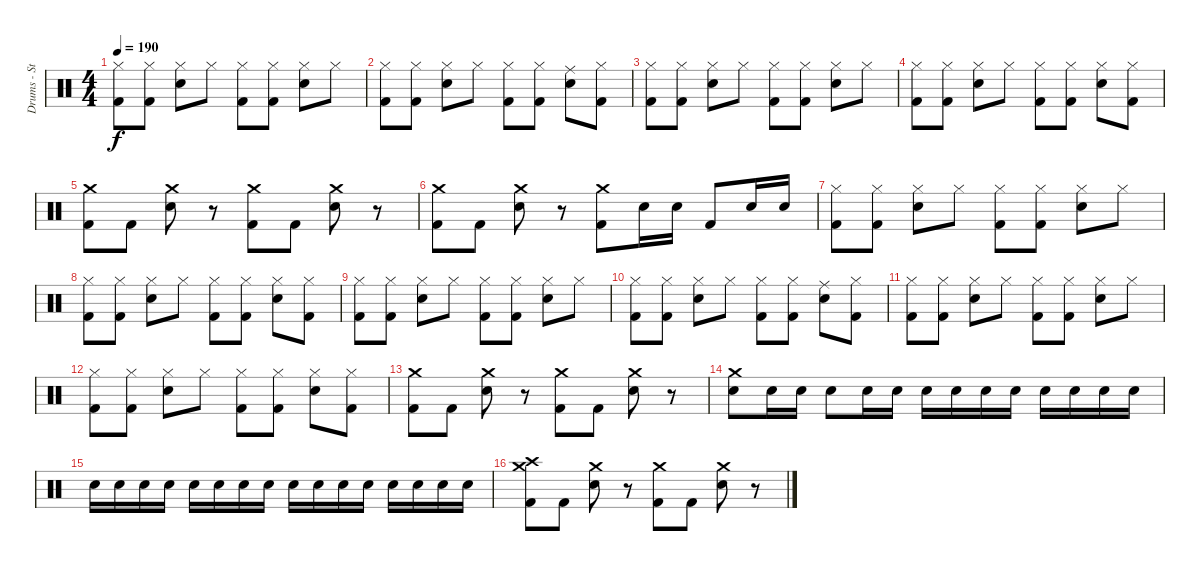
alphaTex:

\track ("Drums - Stevo 32" "Drums - St") {instrument percussion}
\staff {score}
\articulation defaults
\ts (4 4)
\tempo 190
\clef neutral
\ks c
("Hi-Hat (closed)" "Kick (hit) 2").8{dy f} ("Hi-Hat (closed)" "Kick (hit) 2").8 ("Hi-Hat (closed)" "Electric Snare (hit)").8 "Hi-Hat (closed)".8 ("Hi-Hat (closed)" "Kick (hit) 2").8 ("Hi-Hat (closed)" "Kick (hit) 2").8 ("Hi-Hat (closed)" "Electric Snare (hit)").8 "Hi-Hat (closed)".8 |
("Hi-Hat (closed)" "Kick (hit) 2").8 ("Hi-Hat (closed)" "Kick (hit) 2").8 ("Hi-Hat (closed)" "Electric Snare (hit)").8 "Hi-Hat (closed)".8 ("Hi-Hat (closed)" "Kick (hit) 2").8 ("Hi-Hat (closed)" "Kick (hit) 2").8 ("Ride (middle)" "Electric Snare (hit)").8 ("Hi-Hat (closed)" "Kick (hit) 2").8 |
("Hi-Hat (closed)" "Kick (hit) 2").8 ("Hi-Hat (closed)" "Kick (hit) 2").8 ("Hi-Hat (closed)" "Electric Snare (hit)").8 "Hi-Hat (closed)".8 ("Hi-Hat (closed)" "Kick (hit) 2").8 ("Hi-Hat (closed)" "Kick (hit) 2").8 ("Hi-Hat (closed)" "Electric Snare (hit)").8 "Hi-Hat (closed)".8 |
("Hi-Hat (closed)" "Kick (hit) 2").8 ("Hi-Hat (closed)" "Kick (hit) 2").8 ("Hi-Hat (closed)" "Electric Snare (hit)").8 "Hi-Hat (closed)".8 ("Hi-Hat (closed)" "Kick (hit) 2").8 ("Hi-Hat (closed)" "Kick (hit) 2").8 ("Hi-Hat (closed)" "Electric Snare (hit)").8 ("Hi-Hat (closed)" "Kick (hit) 2").8 |
("Crash medium (hit)" "Kick (hit) 2").8 "Kick (hit) 2".8 ("Crash medium (hit)" "Electric Snare (hit)").8 r.8 ("Crash medium (hit)" "Kick (hit) 2").8 "Kick (hit) 2".8 ("Crash medium (hit)" "Electric Snare (hit)").8 r.8 |
("Crash medium (hit)" "Kick (hit) 2").8 "Kick (hit) 2".8 ("Crash medium (hit)" "Electric Snare (hit)").8 r.8 ("Crash medium (hit)" "Kick (hit) 2").8 "Electric Snare (hit)".16 "Electric Snare (hit)".16 "Kick (hit) 2".8 "Electric Snare (hit)".16 "Electric Snare (hit)".16 |
("Hi-Hat (closed)" "Kick (hit) 2").8 ("Hi-Hat (closed)" "Kick (hit) 2").8 ("Hi-Hat (closed)" "Electric Snare (hit)").8 "Hi-Hat (closed)".8 ("Hi-Hat (closed)" "Kick (hit) 2").8 ("Hi-Hat (closed)" "Kick (hit) 2").8 ("Hi-Hat (closed)" "Electric Snare (hit)").8 "Hi-Hat (closed)".8 |
("Hi-Hat (closed)" "Kick (hit) 2").8 ("Hi-Hat (closed)" "Kick (hit) 2").8 ("Hi-Hat (closed)" "Electric Snare (hit)").8 "Hi-Hat (closed)".8 ("Hi-Hat (closed)" "Kick (hit) 2").8 ("Hi-Hat (closed)" "Kick (hit) 2").8 ("Hi-Hat (closed)" "Electric Snare (hit)").8 ("Hi-Hat (closed)" "Kick (hit) 2").8 |
("Hi-Hat (closed)" "Kick (hit) 2").8 ("Hi-Hat (closed)" "Kick (hit) 2").8 ("Hi-Hat (closed)" "Electric Snare (hit)").8 "Hi-Hat (closed)".8 ("Hi-Hat (closed)" "Kick (hit) 2").8 ("Hi-Hat (closed)" "Kick (hit) 2").8 ("Hi-Hat (closed)" "Electric Snare (hit)").8 "Hi-Hat (closed)".8 |
("Hi-Hat (closed)" "Kick (hit) 2").8 ("Hi-Hat (closed)" "Kick (hit) 2").8 ("Hi-Hat (closed)" "Electric Snare (hit)").8 "Hi-Hat (closed)".8 ("Hi-Hat (closed)" "Kick (hit) 2").8 ("Hi-Hat (closed)" "Kick (hit) 2").8 ("Ride (middle)" "Electric Snare (hit)").8 ("Hi-Hat (closed)" "Kick (hit) 2").8 |
("Hi-Hat (closed)" "Kick (hit) 2").8 ("Hi-Hat (closed)" "Kick (hit) 2").8 ("Hi-Hat (closed)" "Electric Snare (hit)").8 "Hi-Hat (closed)".8 ("Hi-Hat (closed)" "Kick (hit) 2").8 ("Hi-Hat (closed)" "Kick (hit) 2").8 ("Hi-Hat (closed)" "Electric Snare (hit)").8 "Hi-Hat (closed)".8 |
("Hi-Hat (closed)" "Kick (hit) 2").8 ("Hi-Hat (closed)" "Kick (hit) 2").8 ("Hi-Hat (closed)" "Electric Snare (hit)").8 "Hi-Hat (closed)".8 ("Hi-Hat (closed)" "Kick (hit) 2").8 ("Hi-Hat (closed)" "Kick (hit) 2").8 ("Hi-Hat (closed)" "Electric Snare (hit)").8 ("Hi-Hat (closed)" "Kick (hit) 2").8 |
("Crash medium (hit)" "Kick (hit) 2").8 "Kick (hit) 2".8 ("Crash medium (hit)" "Electric Snare (hit)").8 r.8 ("Crash medium (hit)" "Kick (hit) 2").8 "Kick (hit) 2".8 ("Crash medium (hit)" "Electric Snare (hit)").8 r.8 |
("Crash medium (hit)" "Electric Snare (hit)").8 "Electric Snare (hit)".16 "Electric Snare (hit)".16 "Electric Snare (hit)".8 "Electric Snare (hit)".16 "Electric Snare (hit)".16 "Electric Snare (hit)".16 "Electric Snare (hit)".16 "Electric Snare (hit)".16 "Electric Snare (hit)".16 "Electric Snare (hit)".16 "Electric Snare (hit)".16 "Electric Snare (hit)".16 "Electric Snare (hit)".16 |
"Electric Snare (hit)".16 "Electric Snare (hit)".16 "Electric Snare (hit)".16 "Electric Snare (hit)".16 "Electric Snare (hit)".16 "Electric Snare (hit)".16 "Electric Snare (hit)".16 "Electric Snare (hit)".16 "Electric Snare (hit)".16 "Electric Snare (hit)".16 "Electric Snare (hit)".16 "Electric Snare (hit)".16 "Electric Snare (hit)".16 "Electric Snare (hit)".16 "Electric Snare (hit)".16 "Electric Snare (hit)".16 |
("Crash high (hit)" "Crash medium (hit)" "Kick (hit) 2").8 "Kick (hit) 2".8 ("Crash medium (hit)" "Electric Snare (hit)").8 r.8 ("Crash medium (hit)" "Kick (hit) 2").8 "Kick (hit) 2".8 ("Crash medium (hit)" "Electric Snare (hit)").8 r.8
